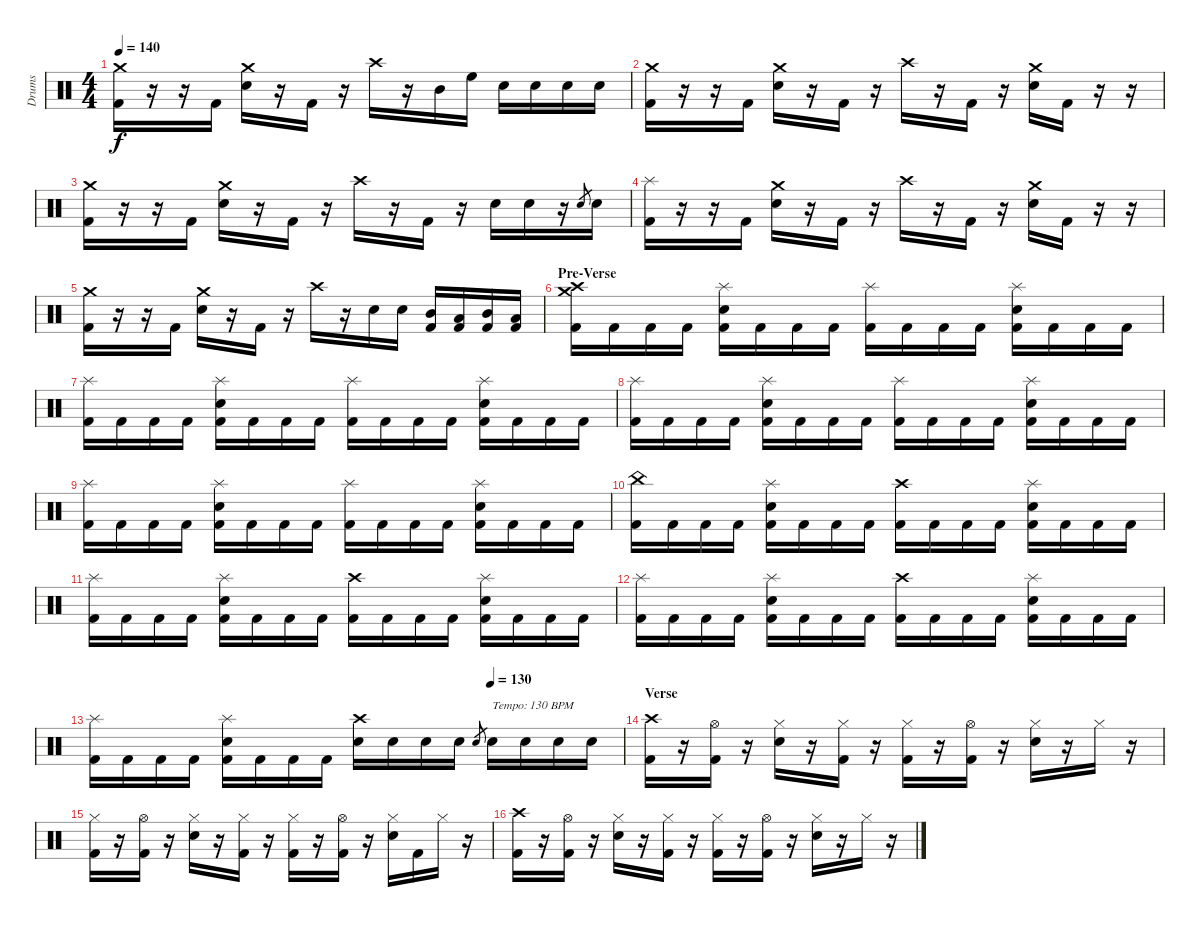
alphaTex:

\track ("Drums" "Drums") {instrument percussion}
\staff {score}
\articulation defaults
\ts (4 4)
\tempo 140
\clef neutral
\ks c
("Crash medium (hit)" "Kick (hit) 2").16{dy f} r.16 r.16 "Kick (hit) 2".16 ("Crash medium (hit)" "Electric Snare (hit)").16 r.16 "Kick (hit) 2".16 r.16 "Crash high (hit)".16 r.16 "Mid Tom (hit)".16 "High Floor Tom (hit)".16 "Electric Snare (hit)".16 "Electric Snare (hit)".16 "Electric Snare (hit)".16 "Electric Snare (hit)".16 |
("Crash medium (hit)" "Kick (hit) 2").16 r.16 r.16 "Kick (hit) 2".16 ("Crash medium (hit)" "Electric Snare (hit)").16 r.16 "Kick (hit) 2".16 r.16 "Crash high (hit)".16 r.16 "Kick (hit) 2".16 r.16 ("Crash medium (hit)" "Electric Snare (hit)").16 "Kick (hit) 2".16 r.16 r.16 |
("Crash medium (hit)" "Kick (hit) 2").16 r.16 r.16 "Kick (hit) 2".16 ("Crash medium (hit)" "Electric Snare (hit)").16 r.16 "Kick (hit) 2".16 r.16 "Crash high (hit)".16 r.16 "Kick (hit) 2".16 r.16 "Electric Snare (hit)".16 "Electric Snare (hit)".16 r.16 "Electric Snare (hit)".8{gr} "Electric Snare (hit)".16 |
("Splash (hit)" "Kick (hit) 2").16 r.16 r.16 "Kick (hit) 2".16 ("Crash medium (hit)" "Electric Snare (hit)").16 r.16 "Kick (hit) 2".16 r.16 "Crash high (hit)".16 r.16 "Kick (hit) 2".16 r.16 ("Crash medium (hit)" "Electric Snare (hit)").16 "Kick (hit) 2".16 r.16 r.16 |
("Crash medium (hit)" "Kick (hit) 2").16 r.16 r.16 "Kick (hit) 2".16 ("Crash medium (hit)" "Electric Snare (hit)").16 r.16 "Kick (hit) 2".16 r.16 "Crash high (hit)".16 r.16 "Electric Snare (hit)".16 "Electric Snare (hit)".16 ("Mid Tom (hit)" "Kick (hit) 2").16 ("Low Tom (hit)" "Kick (hit) 2").16 ("Mid Tom (hit)" "Kick (hit) 2").16 ("Low Tom (hit)" "Kick (hit) 2").16 |
\section ("" "Pre-Verse")
("Crash medium (hit)" "Crash high (hit)" "Kick (hit) 2").16 "Kick (hit) 2".16 "Kick (hit) 2".16 "Kick (hit) 2".16 ("Splash (hit)" "Electric Snare (hit)" "Kick (hit) 2").16 "Kick (hit) 2".16 "Kick (hit) 2".16 "Kick (hit) 2".16 ("Splash (hit)" "Kick (hit) 2").16 "Kick (hit) 2".16 "Kick (hit) 2".16 "Kick (hit) 2".16 ("Splash (hit)" "Electric Snare (hit)" "Kick (hit) 2").16 "Kick (hit) 2".16 "Kick (hit) 2".16 "Kick (hit) 2".16 |
("Splash (hit)" "Kick (hit) 2").16 "Kick (hit) 2".16 "Kick (hit) 2".16 "Kick (hit) 2".16 ("Splash (hit)" "Electric Snare (hit)" "Kick (hit) 2").16 "Kick (hit) 2".16 "Kick (hit) 2".16 "Kick (hit) 2".16 ("Splash (hit)" "Kick (hit) 2").16 "Kick (hit) 2".16 "Kick (hit) 2".16 "Kick (hit) 2".16 ("Splash (hit)" "Electric Snare (hit)" "Kick (hit) 2").16 "Kick (hit) 2".16 "Kick (hit) 2".16 "Kick (hit) 2".16 |
("Splash (hit)" "Kick (hit) 2").16 "Kick (hit) 2".16 "Kick (hit) 2".16 "Kick (hit) 2".16 ("Splash (hit)" "Electric Snare (hit)" "Kick (hit) 2").16 "Kick (hit) 2".16 "Kick (hit) 2".16 "Kick (hit) 2".16 ("Splash (hit)" "Kick (hit) 2").16 "Kick (hit) 2".16 "Kick (hit) 2".16 "Kick (hit) 2".16 ("Splash (hit)" "Electric Snare (hit)" "Kick (hit) 2").16 "Kick (hit) 2".16 "Kick (hit) 2".16 "Kick (hit) 2".16 |
("Splash (hit)" "Kick (hit) 2").16 "Kick (hit) 2".16 "Kick (hit) 2".16 "Kick (hit) 2".16 ("Splash (hit)" "Electric Snare (hit)" "Kick (hit) 2").16 "Kick (hit) 2".16 "Kick (hit) 2".16 "Kick (hit) 2".16 ("Splash (hit)" "Kick (hit) 2").16 "Kick (hit) 2".16 "Kick (hit) 2".16 "Kick (hit) 2".16 ("Splash (hit)" "Electric Snare (hit)" "Kick (hit) 2").16 "Kick (hit) 2".16 "Kick (hit) 2".16 "Kick (hit) 2".16 |
("China (hit)" "Kick (hit) 2").16 "Kick (hit) 2".16 "Kick (hit) 2".16 "Kick (hit) 2".16 ("Splash (hit)" "Electric Snare (hit)" "Kick (hit) 2").16 "Kick (hit) 2".16 "Kick (hit) 2".16 "Kick (hit) 2".16 ("Crash high (hit)" "Kick (hit) 2").16 "Kick (hit) 2".16 "Kick (hit) 2".16 "Kick (hit) 2".16 ("Splash (hit)" "Electric Snare (hit)" "Kick (hit) 2").16 "Kick (hit) 2".16 "Kick (hit) 2".16 "Kick (hit) 2".16 |
("Splash (hit)" "Kick (hit) 2").16 "Kick (hit) 2".16 "Kick (hit) 2".16 "Kick (hit) 2".16 ("Splash (hit)" "Electric Snare (hit)" "Kick (hit) 2").16 "Kick (hit) 2".16 "Kick (hit) 2".16 "Kick (hit) 2".16 ("Crash high (hit)" "Kick (hit) 2").16 "Kick (hit) 2".16 "Kick (hit) 2".16 "Kick (hit) 2".16 ("Splash (hit)" "Electric Snare (hit)" "Kick (hit) 2").16 "Kick (hit) 2".16 "Kick (hit) 2".16 "Kick (hit) 2".16 |
("Splash (hit)" "Kick (hit) 2").16 "Kick (hit) 2".16 "Kick (hit) 2".16 "Kick (hit) 2".16 ("Splash (hit)" "Electric Snare (hit)" "Kick (hit) 2").16 "Kick (hit) 2".16 "Kick (hit) 2".16 "Kick (hit) 2".16 ("Crash high (hit)" "Kick (hit) 2").16 "Kick (hit) 2".16 "Kick (hit) 2".16 "Kick (hit) 2".16 ("Splash (hit)" "Electric Snare (hit)" "Kick (hit) 2").16 "Kick (hit) 2".16 "Kick (hit) 2".16 "Kick (hit) 2".16 |
\tempo (130 0.75)
("Splash (hit)" "Kick (hit) 2").16 "Kick (hit) 2".16 "Kick (hit) 2".16 "Kick (hit) 2".16 ("Splash (hit)" "Electric Snare (hit)" "Kick (hit) 2").16 "Kick (hit) 2".16 "Kick (hit) 2".16 "Kick (hit) 2".16 ("Crash high (hit)" "Electric Snare (hit)").16 "Electric Snare (hit)".16 "Electric Snare (hit)".16 "Electric Snare (hit)".16 "Electric Snare (hit)".8{gr} "Electric Snare (hit)".16{txt "Tempo: 130 BPM"} "Electric Snare (hit)".16 "Electric Snare (hit)".16 "Electric Snare (hit)".16 |
\section ("" "Verse")
("Crash high (hit)" "Kick (hit) 2").16 r.16 ("Hi-Hat (open)" "Kick (hit) 2").16 r.16 ("Hi-Hat (closed)" "Electric Snare (hit)").16 r.16 ("Hi-Hat (closed)" "Kick (hit) 2").16 r.16 ("Hi-Hat (closed)" "Kick (hit) 2").16 r.16 ("Hi-Hat (open)" "Kick (hit) 2").16 r.16 ("Hi-Hat (closed)" "Electric Snare (hit)").16 r.16 "Hi-Hat (closed)".16 r.16 |
("Hi-Hat (closed)" "Kick (hit) 2").16 r.16 ("Hi-Hat (open)" "Kick (hit) 2").16 r.16 ("Hi-Hat (closed)" "Electric Snare (hit)").16 r.16 ("Hi-Hat (closed)" "Kick (hit) 2").16 r.16 ("Hi-Hat (closed)" "Kick (hit) 2").16 r.16 ("Hi-Hat (open)" "Kick (hit) 2").16 r.16 ("Hi-Hat (closed)" "Electric Snare (hit)").16 "Kick (hit) 2".16 "Hi-Hat (closed)".16 r.16 |
("Crash high (hit)" "Kick (hit) 2").16 r.16 ("Hi-Hat (open)" "Kick (hit) 2").16 r.16 ("Hi-Hat (closed)" "Electric Snare (hit)").16 r.16 ("Hi-Hat (closed)" "Kick (hit) 2").16 r.16 ("Hi-Hat (closed)" "Kick (hit) 2").16 r.16 ("Hi-Hat (open)" "Kick (hit) 2").16 r.16 ("Hi-Hat (closed)" "Electric Snare (hit)").16 r.16 "Hi-Hat (closed)".16 r.16
